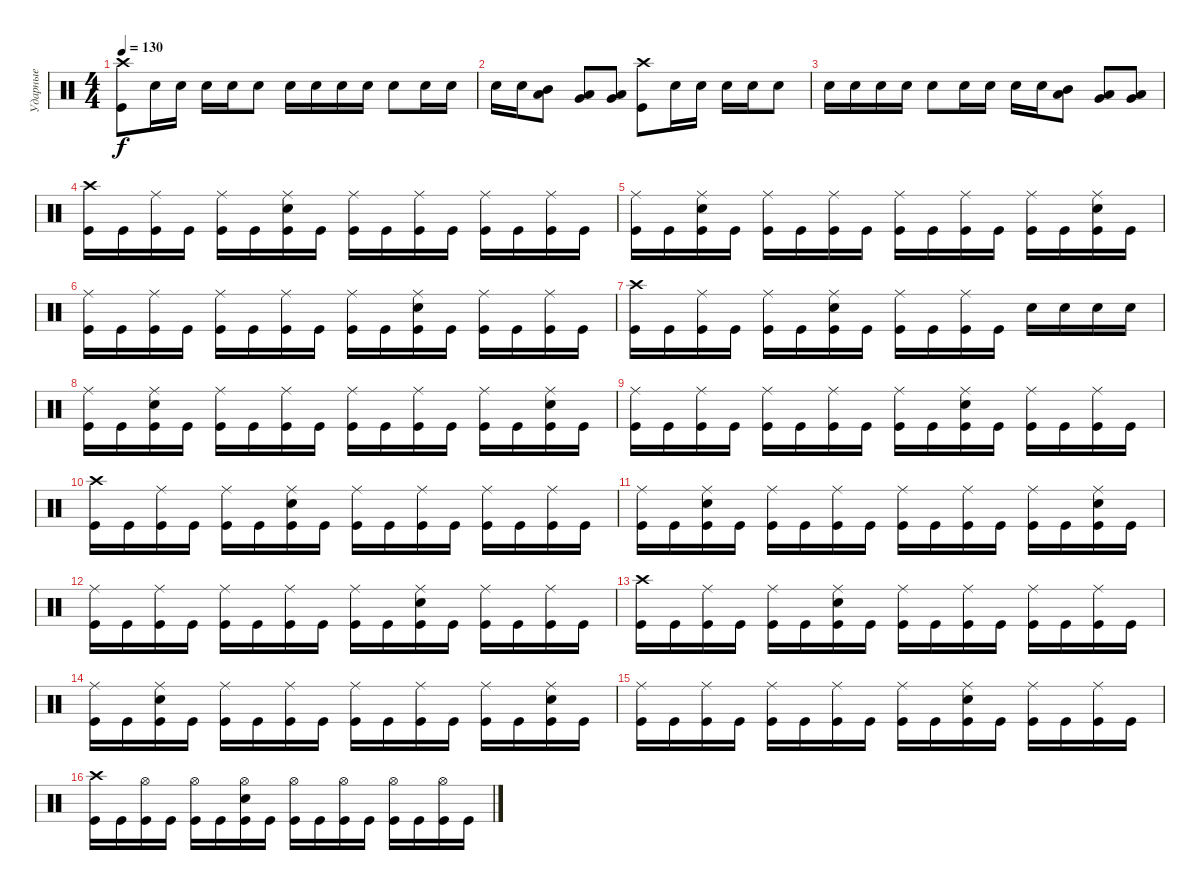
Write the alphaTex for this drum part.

\track ("Ударные" "Ударные") {instrument percussion}
\staff {score}
\articulation defaults
\ts (4 4)
\tempo 130
\clef neutral
\ks c
("Crash high (hit)" "Kick (hit)").8{dy f} "Snare (hit) 2".16 "Snare (hit) 2".16 "Snare (hit) 2".16 "Snare (hit) 2".16 "Snare (hit) 2".8 "Snare (hit) 2".16 "Snare (hit) 2".16 "Snare (hit) 2".16 "Snare (hit) 2".16 "Snare (hit) 2".8 "Snare (hit) 2".16 "Snare (hit) 2".16 |
"Snare (hit) 2".16 "Snare (hit) 2".16 ("Mid Tom (hit)" "Low Tom (hit)").8 ("Low Tom (hit)" "Very Low Tom (hit)").8 ("Very Low Tom (hit)" "Low Floor Tom (hit)").8 ("Crash high (hit)" "Kick (hit)").8 "Snare (hit) 2".16 "Snare (hit) 2".16 "Snare (hit) 2".16 "Snare (hit) 2".16 "Snare (hit) 2".8 |
"Snare (hit) 2".16 "Snare (hit) 2".16 "Snare (hit) 2".16 "Snare (hit) 2".16 "Snare (hit) 2".8 "Snare (hit) 2".16 "Snare (hit) 2".16 "Snare (hit) 2".16 "Snare (hit) 2".16 ("Mid Tom (hit)" "Low Tom (hit)").8 ("Low Tom (hit)" "Very Low Tom (hit)").8 ("Very Low Tom (hit)" "Low Floor Tom (hit)").8 |
("Crash high (hit)" "Kick (hit)").16 "Kick (hit)".16 ("Ride (middle)" "Kick (hit)").16 "Kick (hit)".16 ("Ride (middle)" "Kick (hit)").16 "Kick (hit)".16 ("Ride (middle)" "Snare (hit) 2" "Kick (hit)").16 "Kick (hit)".16 ("Ride (middle)" "Kick (hit)").16 "Kick (hit)".16 ("Ride (middle)" "Kick (hit)").16 "Kick (hit)".16 ("Ride (middle)" "Kick (hit)").16 "Kick (hit)".16 ("Ride (middle)" "Kick (hit)").16 "Kick (hit)".16 |
("Ride (middle)" "Kick (hit)").16 "Kick (hit)".16 ("Ride (middle)" "Snare (hit) 2" "Kick (hit)").16 "Kick (hit)".16 ("Ride (middle)" "Kick (hit)").16 "Kick (hit)".16 ("Ride (middle)" "Kick (hit)").16 "Kick (hit)".16 ("Ride (middle)" "Kick (hit)").16 "Kick (hit)".16 ("Ride (middle)" "Kick (hit)").16 "Kick (hit)".16 ("Ride (middle)" "Kick (hit)").16 "Kick (hit)".16 ("Ride (middle)" "Snare (hit) 2" "Kick (hit)").16 "Kick (hit)".16 |
("Ride (middle)" "Kick (hit)").16 "Kick (hit)".16 ("Ride (middle)" "Kick (hit)").16 "Kick (hit)".16 ("Ride (middle)" "Kick (hit)").16 "Kick (hit)".16 ("Ride (middle)" "Kick (hit)").16 "Kick (hit)".16 ("Ride (middle)" "Kick (hit)").16 "Kick (hit)".16 ("Snare (hit) 2" "Ride (middle)" "Kick (hit)").16 "Kick (hit)".16 ("Ride (middle)" "Kick (hit)").16 "Kick (hit)".16 ("Ride (middle)" "Kick (hit)").16 "Kick (hit)".16 |
("Crash high (hit)" "Kick (hit)").16 "Kick (hit)".16 ("Ride (middle)" "Kick (hit)").16 "Kick (hit)".16 ("Ride (middle)" "Kick (hit)").16 "Kick (hit)".16 ("Ride (middle)" "Snare (hit) 2" "Kick (hit)").16 "Kick (hit)".16 ("Ride (middle)" "Kick (hit)").16 "Kick (hit)".16 ("Ride (middle)" "Kick (hit)").16 "Kick (hit)".16 "Snare (hit) 2".16 "Snare (hit) 2".16 "Snare (hit) 2".16 "Snare (hit) 2".16 |
("Ride (middle)" "Kick (hit)").16 "Kick (hit)".16 ("Ride (middle)" "Snare (hit) 2" "Kick (hit)").16 "Kick (hit)".16 ("Ride (middle)" "Kick (hit)").16 "Kick (hit)".16 ("Ride (middle)" "Kick (hit)").16 "Kick (hit)".16 ("Ride (middle)" "Kick (hit)").16 "Kick (hit)".16 ("Ride (middle)" "Kick (hit)").16 "Kick (hit)".16 ("Ride (middle)" "Kick (hit)").16 "Kick (hit)".16 ("Ride (middle)" "Snare (hit) 2" "Kick (hit)").16 "Kick (hit)".16 |
("Ride (middle)" "Kick (hit)").16 "Kick (hit)".16 ("Ride (middle)" "Kick (hit)").16 "Kick (hit)".16 ("Ride (middle)" "Kick (hit)").16 "Kick (hit)".16 ("Ride (middle)" "Kick (hit)").16 "Kick (hit)".16 ("Ride (middle)" "Kick (hit)").16 "Kick (hit)".16 ("Snare (hit) 2" "Ride (middle)" "Kick (hit)").16 "Kick (hit)".16 ("Ride (middle)" "Kick (hit)").16 "Kick (hit)".16 ("Ride (middle)" "Kick (hit)").16 "Kick (hit)".16 |
("Crash high (hit)" "Kick (hit)").16 "Kick (hit)".16 ("Ride (middle)" "Kick (hit)").16 "Kick (hit)".16 ("Ride (middle)" "Kick (hit)").16 "Kick (hit)".16 ("Ride (middle)" "Snare (hit) 2" "Kick (hit)").16 "Kick (hit)".16 ("Ride (middle)" "Kick (hit)").16 "Kick (hit)".16 ("Ride (middle)" "Kick (hit)").16 "Kick (hit)".16 ("Ride (middle)" "Kick (hit)").16 "Kick (hit)".16 ("Ride (middle)" "Kick (hit)").16 "Kick (hit)".16 |
("Ride (middle)" "Kick (hit)").16 "Kick (hit)".16 ("Ride (middle)" "Snare (hit) 2" "Kick (hit)").16 "Kick (hit)".16 ("Ride (middle)" "Kick (hit)").16 "Kick (hit)".16 ("Ride (middle)" "Kick (hit)").16 "Kick (hit)".16 ("Ride (middle)" "Kick (hit)").16 "Kick (hit)".16 ("Ride (middle)" "Kick (hit)").16 "Kick (hit)".16 ("Ride (middle)" "Kick (hit)").16 "Kick (hit)".16 ("Ride (middle)" "Snare (hit) 2" "Kick (hit)").16 "Kick (hit)".16 |
("Ride (middle)" "Kick (hit)").16 "Kick (hit)".16 ("Ride (middle)" "Kick (hit)").16 "Kick (hit)".16 ("Ride (middle)" "Kick (hit)").16 "Kick (hit)".16 ("Ride (middle)" "Kick (hit)").16 "Kick (hit)".16 ("Ride (middle)" "Kick (hit)").16 "Kick (hit)".16 ("Snare (hit) 2" "Ride (middle)" "Kick (hit)").16 "Kick (hit)".16 ("Ride (middle)" "Kick (hit)").16 "Kick (hit)".16 ("Ride (middle)" "Kick (hit)").16 "Kick (hit)".16 |
("Crash high (hit)" "Kick (hit)").16 "Kick (hit)".16 ("Ride (middle)" "Kick (hit)").16 "Kick (hit)".16 ("Ride (middle)" "Kick (hit)").16 "Kick (hit)".16 ("Ride (middle)" "Snare (hit) 2" "Kick (hit)").16 "Kick (hit)".16 ("Ride (middle)" "Kick (hit)").16 "Kick (hit)".16 ("Ride (middle)" "Kick (hit)").16 "Kick (hit)".16 ("Ride (middle)" "Kick (hit)").16 "Kick (hit)".16 ("Ride (middle)" "Kick (hit)").16 "Kick (hit)".16 |
("Ride (middle)" "Kick (hit)").16 "Kick (hit)".16 ("Ride (middle)" "Snare (hit) 2" "Kick (hit)").16 "Kick (hit)".16 ("Ride (middle)" "Kick (hit)").16 "Kick (hit)".16 ("Ride (middle)" "Kick (hit)").16 "Kick (hit)".16 ("Ride (middle)" "Kick (hit)").16 "Kick (hit)".16 ("Ride (middle)" "Kick (hit)").16 "Kick (hit)".16 ("Ride (middle)" "Kick (hit)").16 "Kick (hit)".16 ("Ride (middle)" "Snare (hit) 2" "Kick (hit)").16 "Kick (hit)".16 |
("Ride (middle)" "Kick (hit)").16 "Kick (hit)".16 ("Ride (middle)" "Kick (hit)").16 "Kick (hit)".16 ("Ride (middle)" "Kick (hit)").16 "Kick (hit)".16 ("Ride (middle)" "Kick (hit)").16 "Kick (hit)".16 ("Ride (middle)" "Kick (hit)").16 "Kick (hit)".16 ("Snare (hit) 2" "Ride (middle)" "Kick (hit)").16 "Kick (hit)".16 ("Ride (middle)" "Kick (hit)").16 "Kick (hit)".16 ("Ride (middle)" "Kick (hit)").16 "Kick (hit)".16 |
("Crash high (hit)" "Kick (hit)").16 "Kick (hit)".16 ("Hi-Hat (open)" "Kick (hit)").16 "Kick (hit)".16 ("Hi-Hat (open)" "Kick (hit)").16 "Kick (hit)".16 ("Hi-Hat (open)" "Snare (hit) 2" "Kick (hit)").16 "Kick (hit)".16 ("Hi-Hat (open)" "Kick (hit)").16 "Kick (hit)".16 ("Hi-Hat (open)" "Kick (hit)").16 "Kick (hit)".16 ("Hi-Hat (open)" "Kick (hit)").16 "Kick (hit)".16 ("Hi-Hat (open)" "Kick (hit)").16 "Kick (hit)".16
